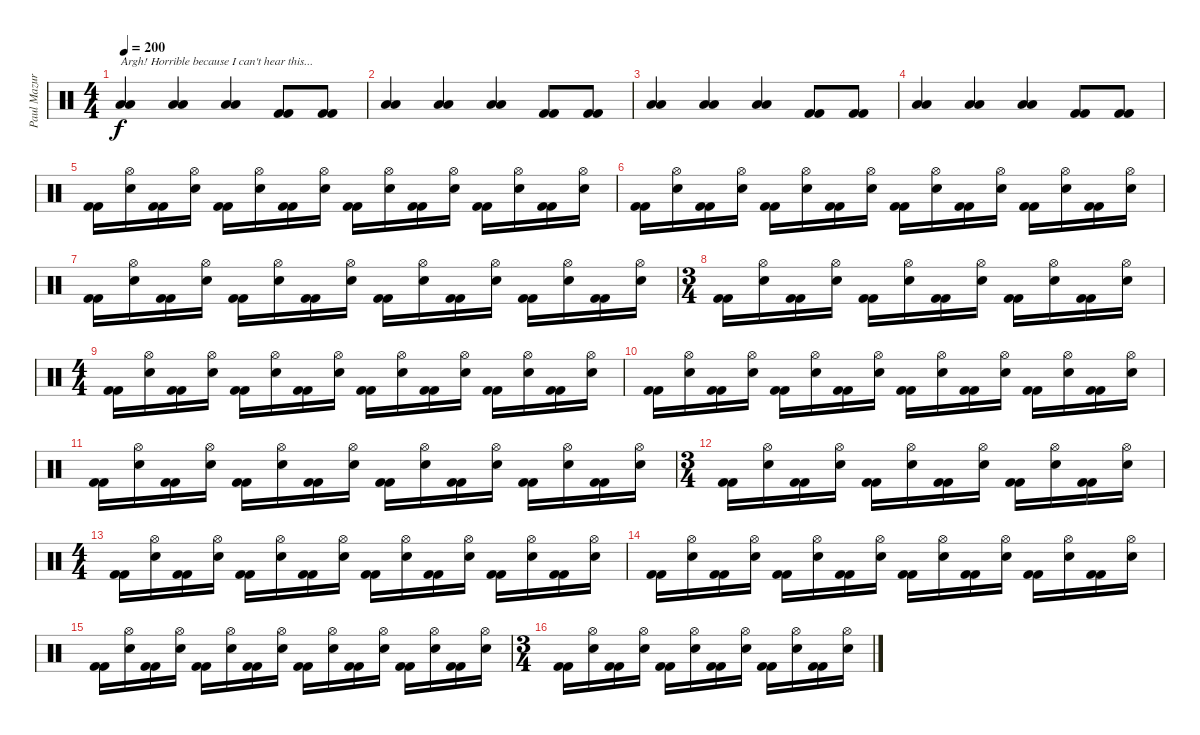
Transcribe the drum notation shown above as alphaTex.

\track ("Paul Mazurkiewicz" "Paul Mazur") {instrument percussion}
\staff {score}
\articulation defaults
\ts (4 4)
\tempo 200
\clef neutral
\ks c
("Low Floor Tom (hit)" "Low Floor Tom (hit)").4{txt "Argh! Horrible because I can't hear this..." dy f} ("Low Floor Tom (hit)" "Low Floor Tom (hit)").4 ("Low Floor Tom (hit)" "Low Floor Tom (hit)").4 ("Kick (hit) 2" "Kick (hit) 2").8 ("Kick (hit) 2" "Kick (hit) 2").8 |
("Low Floor Tom (hit)" "Low Floor Tom (hit)").4 ("Low Floor Tom (hit)" "Low Floor Tom (hit)").4 ("Low Floor Tom (hit)" "Low Floor Tom (hit)").4 ("Kick (hit) 2" "Kick (hit) 2").8 ("Kick (hit) 2" "Kick (hit) 2").8 |
("Low Floor Tom (hit)" "Low Floor Tom (hit)").4 ("Low Floor Tom (hit)" "Low Floor Tom (hit)").4 ("Low Floor Tom (hit)" "Low Floor Tom (hit)").4 ("Kick (hit) 2" "Kick (hit) 2").8 ("Kick (hit) 2" "Kick (hit) 2").8 |
("Low Floor Tom (hit)" "Low Floor Tom (hit)").4 ("Low Floor Tom (hit)" "Low Floor Tom (hit)").4 ("Low Floor Tom (hit)" "Low Floor Tom (hit)").4 ("Kick (hit) 2" "Kick (hit) 2").8 ("Kick (hit) 2" "Kick (hit) 2").8 |
("Kick (hit) 2" "Kick (hit) 2").16 ("Hi-Hat (open)" "Electric Snare (hit)").16 ("Kick (hit) 2" "Kick (hit) 2").16 ("Hi-Hat (open)" "Electric Snare (hit)").16 ("Kick (hit) 2" "Kick (hit) 2").16 ("Hi-Hat (open)" "Electric Snare (hit)").16 ("Kick (hit) 2" "Kick (hit) 2").16 ("Hi-Hat (open)" "Electric Snare (hit)").16 ("Kick (hit) 2" "Kick (hit) 2").16 ("Hi-Hat (open)" "Electric Snare (hit)").16 ("Kick (hit) 2" "Kick (hit) 2").16 ("Hi-Hat (open)" "Electric Snare (hit)").16 ("Kick (hit) 2" "Kick (hit) 2").16 ("Hi-Hat (open)" "Electric Snare (hit)").16 ("Kick (hit) 2" "Kick (hit) 2").16 ("Hi-Hat (open)" "Electric Snare (hit)").16 |
("Kick (hit) 2" "Kick (hit) 2").16 ("Hi-Hat (open)" "Electric Snare (hit)").16 ("Kick (hit) 2" "Kick (hit) 2").16 ("Hi-Hat (open)" "Electric Snare (hit)").16 ("Kick (hit) 2" "Kick (hit) 2").16 ("Hi-Hat (open)" "Electric Snare (hit)").16 ("Kick (hit) 2" "Kick (hit) 2").16 ("Hi-Hat (open)" "Electric Snare (hit)").16 ("Kick (hit) 2" "Kick (hit) 2").16 ("Hi-Hat (open)" "Electric Snare (hit)").16 ("Kick (hit) 2" "Kick (hit) 2").16 ("Hi-Hat (open)" "Electric Snare (hit)").16 ("Kick (hit) 2" "Kick (hit) 2").16 ("Hi-Hat (open)" "Electric Snare (hit)").16 ("Kick (hit) 2" "Kick (hit) 2").16 ("Hi-Hat (open)" "Electric Snare (hit)").16 |
("Kick (hit) 2" "Kick (hit) 2").16 ("Hi-Hat (open)" "Electric Snare (hit)").16 ("Kick (hit) 2" "Kick (hit) 2").16 ("Hi-Hat (open)" "Electric Snare (hit)").16 ("Kick (hit) 2" "Kick (hit) 2").16 ("Hi-Hat (open)" "Electric Snare (hit)").16 ("Kick (hit) 2" "Kick (hit) 2").16 ("Hi-Hat (open)" "Electric Snare (hit)").16 ("Kick (hit) 2" "Kick (hit) 2").16 ("Hi-Hat (open)" "Electric Snare (hit)").16 ("Kick (hit) 2" "Kick (hit) 2").16 ("Hi-Hat (open)" "Electric Snare (hit)").16 ("Kick (hit) 2" "Kick (hit) 2").16 ("Hi-Hat (open)" "Electric Snare (hit)").16 ("Kick (hit) 2" "Kick (hit) 2").16 ("Hi-Hat (open)" "Electric Snare (hit)").16 |
\ts (3 4)
("Kick (hit) 2" "Kick (hit) 2").16 ("Hi-Hat (open)" "Electric Snare (hit)").16 ("Kick (hit) 2" "Kick (hit) 2").16 ("Hi-Hat (open)" "Electric Snare (hit)").16 ("Kick (hit) 2" "Kick (hit) 2").16 ("Hi-Hat (open)" "Electric Snare (hit)").16 ("Kick (hit) 2" "Kick (hit) 2").16 ("Hi-Hat (open)" "Electric Snare (hit)").16 ("Kick (hit) 2" "Kick (hit) 2").16 ("Hi-Hat (open)" "Electric Snare (hit)").16 ("Kick (hit) 2" "Kick (hit) 2").16 ("Hi-Hat (open)" "Electric Snare (hit)").16 |
\ts (4 4)
("Kick (hit) 2" "Kick (hit) 2").16 ("Hi-Hat (open)" "Electric Snare (hit)").16 ("Kick (hit) 2" "Kick (hit) 2").16 ("Hi-Hat (open)" "Electric Snare (hit)").16 ("Kick (hit) 2" "Kick (hit) 2").16 ("Hi-Hat (open)" "Electric Snare (hit)").16 ("Kick (hit) 2" "Kick (hit) 2").16 ("Hi-Hat (open)" "Electric Snare (hit)").16 ("Kick (hit) 2" "Kick (hit) 2").16 ("Hi-Hat (open)" "Electric Snare (hit)").16 ("Kick (hit) 2" "Kick (hit) 2").16 ("Hi-Hat (open)" "Electric Snare (hit)").16 ("Kick (hit) 2" "Kick (hit) 2").16 ("Hi-Hat (open)" "Electric Snare (hit)").16 ("Kick (hit) 2" "Kick (hit) 2").16 ("Hi-Hat (open)" "Electric Snare (hit)").16 |
("Kick (hit) 2" "Kick (hit) 2").16 ("Hi-Hat (open)" "Electric Snare (hit)").16 ("Kick (hit) 2" "Kick (hit) 2").16 ("Hi-Hat (open)" "Electric Snare (hit)").16 ("Kick (hit) 2" "Kick (hit) 2").16 ("Hi-Hat (open)" "Electric Snare (hit)").16 ("Kick (hit) 2" "Kick (hit) 2").16 ("Hi-Hat (open)" "Electric Snare (hit)").16 ("Kick (hit) 2" "Kick (hit) 2").16 ("Hi-Hat (open)" "Electric Snare (hit)").16 ("Kick (hit) 2" "Kick (hit) 2").16 ("Hi-Hat (open)" "Electric Snare (hit)").16 ("Kick (hit) 2" "Kick (hit) 2").16 ("Hi-Hat (open)" "Electric Snare (hit)").16 ("Kick (hit) 2" "Kick (hit) 2").16 ("Hi-Hat (open)" "Electric Snare (hit)").16 |
("Kick (hit) 2" "Kick (hit) 2").16 ("Hi-Hat (open)" "Electric Snare (hit)").16 ("Kick (hit) 2" "Kick (hit) 2").16 ("Hi-Hat (open)" "Electric Snare (hit)").16 ("Kick (hit) 2" "Kick (hit) 2").16 ("Hi-Hat (open)" "Electric Snare (hit)").16 ("Kick (hit) 2" "Kick (hit) 2").16 ("Hi-Hat (open)" "Electric Snare (hit)").16 ("Kick (hit) 2" "Kick (hit) 2").16 ("Hi-Hat (open)" "Electric Snare (hit)").16 ("Kick (hit) 2" "Kick (hit) 2").16 ("Hi-Hat (open)" "Electric Snare (hit)").16 ("Kick (hit) 2" "Kick (hit) 2").16 ("Hi-Hat (open)" "Electric Snare (hit)").16 ("Kick (hit) 2" "Kick (hit) 2").16 ("Hi-Hat (open)" "Electric Snare (hit)").16 |
\ts (3 4)
("Kick (hit) 2" "Kick (hit) 2").16 ("Hi-Hat (open)" "Electric Snare (hit)").16 ("Kick (hit) 2" "Kick (hit) 2").16 ("Hi-Hat (open)" "Electric Snare (hit)").16 ("Kick (hit) 2" "Kick (hit) 2").16 ("Hi-Hat (open)" "Electric Snare (hit)").16 ("Kick (hit) 2" "Kick (hit) 2").16 ("Hi-Hat (open)" "Electric Snare (hit)").16 ("Kick (hit) 2" "Kick (hit) 2").16 ("Hi-Hat (open)" "Electric Snare (hit)").16 ("Kick (hit) 2" "Kick (hit) 2").16 ("Hi-Hat (open)" "Electric Snare (hit)").16 |
\ts (4 4)
("Kick (hit) 2" "Kick (hit) 2").16 ("Hi-Hat (open)" "Electric Snare (hit)").16 ("Kick (hit) 2" "Kick (hit) 2").16 ("Hi-Hat (open)" "Electric Snare (hit)").16 ("Kick (hit) 2" "Kick (hit) 2").16 ("Hi-Hat (open)" "Electric Snare (hit)").16 ("Kick (hit) 2" "Kick (hit) 2").16 ("Hi-Hat (open)" "Electric Snare (hit)").16 ("Kick (hit) 2" "Kick (hit) 2").16 ("Hi-Hat (open)" "Electric Snare (hit)").16 ("Kick (hit) 2" "Kick (hit) 2").16 ("Hi-Hat (open)" "Electric Snare (hit)").16 ("Kick (hit) 2" "Kick (hit) 2").16 ("Hi-Hat (open)" "Electric Snare (hit)").16 ("Kick (hit) 2" "Kick (hit) 2").16 ("Hi-Hat (open)" "Electric Snare (hit)").16 |
("Kick (hit) 2" "Kick (hit) 2").16 ("Hi-Hat (open)" "Electric Snare (hit)").16 ("Kick (hit) 2" "Kick (hit) 2").16 ("Hi-Hat (open)" "Electric Snare (hit)").16 ("Kick (hit) 2" "Kick (hit) 2").16 ("Hi-Hat (open)" "Electric Snare (hit)").16 ("Kick (hit) 2" "Kick (hit) 2").16 ("Hi-Hat (open)" "Electric Snare (hit)").16 ("Kick (hit) 2" "Kick (hit) 2").16 ("Hi-Hat (open)" "Electric Snare (hit)").16 ("Kick (hit) 2" "Kick (hit) 2").16 ("Hi-Hat (open)" "Electric Snare (hit)").16 ("Kick (hit) 2" "Kick (hit) 2").16 ("Hi-Hat (open)" "Electric Snare (hit)").16 ("Kick (hit) 2" "Kick (hit) 2").16 ("Hi-Hat (open)" "Electric Snare (hit)").16 |
("Kick (hit) 2" "Kick (hit) 2").16 ("Hi-Hat (open)" "Electric Snare (hit)").16 ("Kick (hit) 2" "Kick (hit) 2").16 ("Hi-Hat (open)" "Electric Snare (hit)").16 ("Kick (hit) 2" "Kick (hit) 2").16 ("Hi-Hat (open)" "Electric Snare (hit)").16 ("Kick (hit) 2" "Kick (hit) 2").16 ("Hi-Hat (open)" "Electric Snare (hit)").16 ("Kick (hit) 2" "Kick (hit) 2").16 ("Hi-Hat (open)" "Electric Snare (hit)").16 ("Kick (hit) 2" "Kick (hit) 2").16 ("Hi-Hat (open)" "Electric Snare (hit)").16 ("Kick (hit) 2" "Kick (hit) 2").16 ("Hi-Hat (open)" "Electric Snare (hit)").16 ("Kick (hit) 2" "Kick (hit) 2").16 ("Hi-Hat (open)" "Electric Snare (hit)").16 |
\ts (3 4)
("Kick (hit) 2" "Kick (hit) 2").16 ("Hi-Hat (open)" "Electric Snare (hit)").16 ("Kick (hit) 2" "Kick (hit) 2").16 ("Hi-Hat (open)" "Electric Snare (hit)").16 ("Kick (hit) 2" "Kick (hit) 2").16 ("Hi-Hat (open)" "Electric Snare (hit)").16 ("Kick (hit) 2" "Kick (hit) 2").16 ("Hi-Hat (open)" "Electric Snare (hit)").16 ("Kick (hit) 2" "Kick (hit) 2").16 ("Hi-Hat (open)" "Electric Snare (hit)").16 ("Kick (hit) 2" "Kick (hit) 2").16 ("Hi-Hat (open)" "Electric Snare (hit)").16
